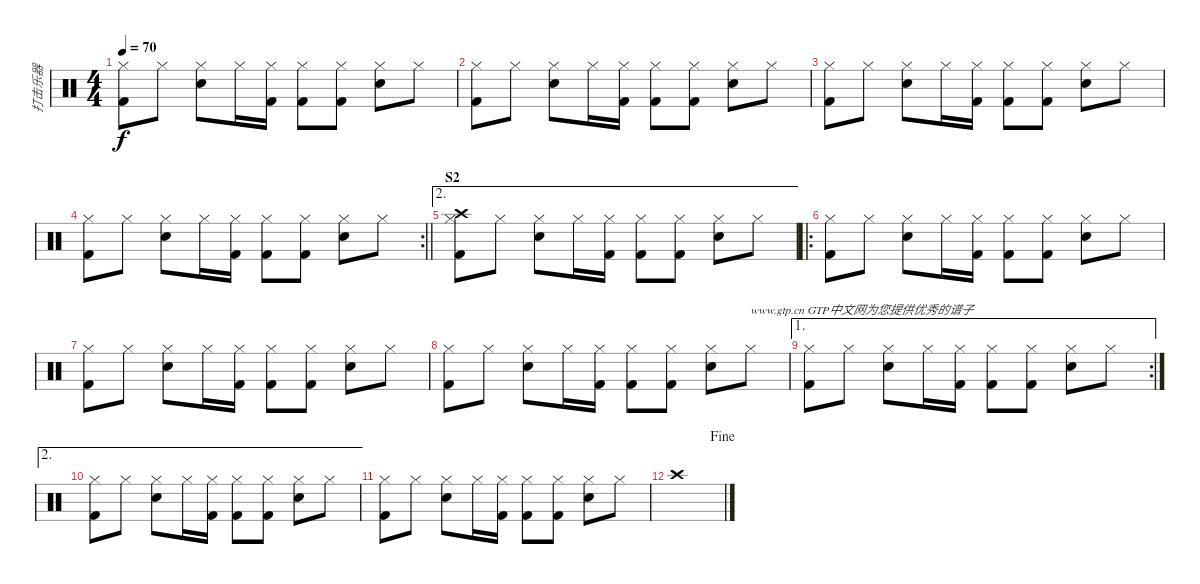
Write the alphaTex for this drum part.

\track ("打击乐器" "打击乐器") {instrument percussion}
\staff {score}
\articulation defaults
\ts (4 4)
\tempo 70
\clef neutral
\ks c
("Hi-Hat (closed)" "Kick (hit) 2").8{dy f} "Hi-Hat (closed)".8 ("Hi-Hat (closed)" "Snare (hit) 2").8 "Hi-Hat (closed)".16 ("Hi-Hat (closed)" "Kick (hit) 2").16 ("Hi-Hat (closed)" "Kick (hit) 2").8 ("Hi-Hat (closed)" "Kick (hit) 2").8 ("Hi-Hat (closed)" "Snare (hit) 2").8 "Hi-Hat (closed)".8 |
("Hi-Hat (closed)" "Kick (hit) 2").8 "Hi-Hat (closed)".8 ("Hi-Hat (closed)" "Snare (hit) 2").8 "Hi-Hat (closed)".16 ("Hi-Hat (closed)" "Kick (hit) 2").16 ("Hi-Hat (closed)" "Kick (hit) 2").8 ("Hi-Hat (closed)" "Kick (hit) 2").8 ("Hi-Hat (closed)" "Snare (hit) 2").8 "Hi-Hat (closed)".8 |
("Hi-Hat (closed)" "Kick (hit) 2").8 "Hi-Hat (closed)".8 ("Hi-Hat (closed)" "Snare (hit) 2").8 "Hi-Hat (closed)".16 ("Hi-Hat (closed)" "Kick (hit) 2").16 ("Hi-Hat (closed)" "Kick (hit) 2").8 ("Hi-Hat (closed)" "Kick (hit) 2").8 ("Hi-Hat (closed)" "Snare (hit) 2").8 "Hi-Hat (closed)".8 |
\rc 2
\barLineRight lightlight
("Hi-Hat (closed)" "Kick (hit) 2").8 "Hi-Hat (closed)".8 ("Hi-Hat (closed)" "Snare (hit) 2").8 "Hi-Hat (closed)".16 ("Hi-Hat (closed)" "Kick (hit) 2").16 ("Hi-Hat (closed)" "Kick (hit) 2").8 ("Hi-Hat (closed)" "Kick (hit) 2").8 ("Hi-Hat (closed)" "Snare (hit) 2").8 "Hi-Hat (closed)".8 |
\ae 2
\section ("" "S2")
("Hi-Hat (closed)" "Crash high (hit)" "Kick (hit) 2").8 "Hi-Hat (closed)".8 ("Hi-Hat (closed)" "Snare (hit) 2").8 "Hi-Hat (closed)".16 ("Hi-Hat (closed)" "Kick (hit) 2").16 ("Hi-Hat (closed)" "Kick (hit) 2").8 ("Hi-Hat (closed)" "Kick (hit) 2").8 ("Hi-Hat (closed)" "Snare (hit) 2").8 "Hi-Hat (closed)".8 |
\ro
("Hi-Hat (closed)" "Kick (hit) 2").8 "Hi-Hat (closed)".8 ("Hi-Hat (closed)" "Snare (hit) 2").8 "Hi-Hat (closed)".16 ("Hi-Hat (closed)" "Kick (hit) 2").16 ("Hi-Hat (closed)" "Kick (hit) 2").8 ("Hi-Hat (closed)" "Kick (hit) 2").8 ("Hi-Hat (closed)" "Snare (hit) 2").8 "Hi-Hat (closed)".8 |
("Hi-Hat (closed)" "Kick (hit) 2").8 "Hi-Hat (closed)".8 ("Hi-Hat (closed)" "Snare (hit) 2").8 "Hi-Hat (closed)".16 ("Hi-Hat (closed)" "Kick (hit) 2").16 ("Hi-Hat (closed)" "Kick (hit) 2").8 ("Hi-Hat (closed)" "Kick (hit) 2").8 ("Hi-Hat (closed)" "Snare (hit) 2").8 "Hi-Hat (closed)".8 |
("Hi-Hat (closed)" "Kick (hit) 2").8 "Hi-Hat (closed)".8 ("Hi-Hat (closed)" "Snare (hit) 2").8 "Hi-Hat (closed)".16 ("Hi-Hat (closed)" "Kick (hit) 2").16 ("Hi-Hat (closed)" "Kick (hit) 2").8 ("Hi-Hat (closed)" "Kick (hit) 2").8 ("Hi-Hat (closed)" "Snare (hit) 2").8 "Hi-Hat (closed)".8{txt "www.gtp.cn GTP中文网为您提供优秀的谱子"} |
\ae 1
\rc 2
("Hi-Hat (closed)" "Kick (hit) 2").8 "Hi-Hat (closed)".8 ("Hi-Hat (closed)" "Snare (hit) 2").8 "Hi-Hat (closed)".16 ("Hi-Hat (closed)" "Kick (hit) 2").16 ("Hi-Hat (closed)" "Kick (hit) 2").8 ("Hi-Hat (closed)" "Kick (hit) 2").8 ("Hi-Hat (closed)" "Snare (hit) 2").8 "Hi-Hat (closed)".8 |
\ae 2
("Hi-Hat (closed)" "Kick (hit) 2").8 "Hi-Hat (closed)".8 ("Hi-Hat (closed)" "Snare (hit) 2").8 "Hi-Hat (closed)".16 ("Hi-Hat (closed)" "Kick (hit) 2").16 ("Hi-Hat (closed)" "Kick (hit) 2").8 ("Hi-Hat (closed)" "Kick (hit) 2").8 ("Hi-Hat (closed)" "Snare (hit) 2").8 "Hi-Hat (closed)".8 |
("Hi-Hat (closed)" "Kick (hit) 2").8 "Hi-Hat (closed)".8 ("Hi-Hat (closed)" "Snare (hit) 2").8 "Hi-Hat (closed)".16 ("Hi-Hat (closed)" "Kick (hit) 2").16 ("Hi-Hat (closed)" "Kick (hit) 2").8 ("Hi-Hat (closed)" "Kick (hit) 2").8 ("Hi-Hat (closed)" "Snare (hit) 2").8 "Hi-Hat (closed)".8 |
\jump fine "Crash high (hit)".1
